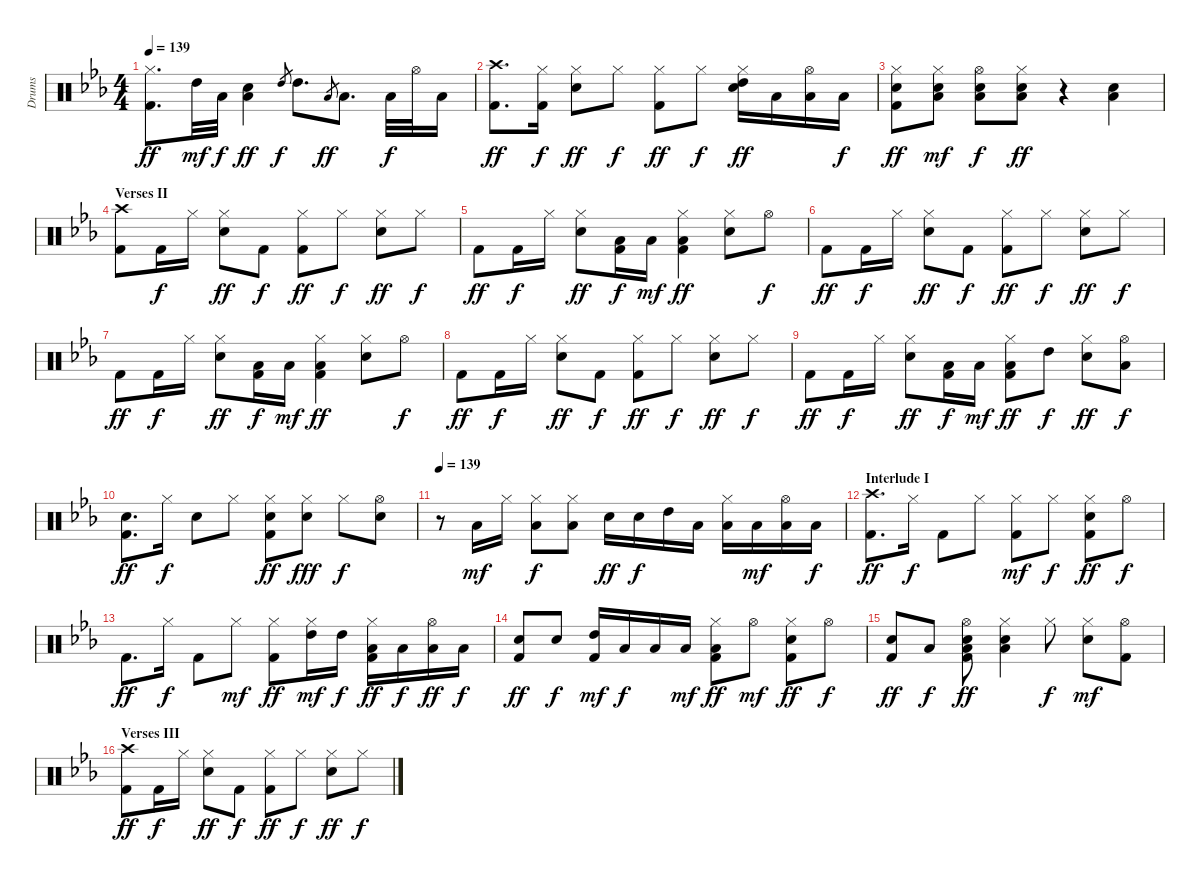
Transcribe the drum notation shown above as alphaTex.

\track ("Drums" "Drums") {instrument percussion}
\staff {score}
\articulation defaults
\ts (4 4)
\tempo 139
\clef neutral
\ks cminor
("Hi-Hat (closed)" "Kick (hit) 2").8{d dy ff} "High Tom (hit)".32{dy mf} "Low Tom (hit)".32{dy f} ("Low Floor Tom (hit)" "Snare (hit) 2").4{dy ff} "High Tom (hit)".8{gr dy f} "High Tom (hit)".8{d} "Low Tom (hit)".8{gr dy ff} "Low Tom (hit)".8{d} "Low Floor Tom (hit)".32{dy f} "Hi-Hat (open)".32 "Low Floor Tom (hit)".16 |
("Crash high (hit)" "Kick (hit) 2").8{d dy ff} ("Kick (hit) 2" "Hi-Hat (closed)").16{dy f} ("Hi-Hat (closed)" "Snare (hit) 2").8{dy ff} "Hi-Hat (closed)".8{dy f} ("Hi-Hat (closed)" "Kick (hit) 2").8{dy ff} "Hi-Hat (closed)".8{dy f} ("High Tom (hit)" "Hi-Hat (closed)" "Snare (hit) 2").16{dy ff} "Low Tom (hit)".16 ("Low Floor Tom (hit)" "Hi-Hat (open)").16 "Low Floor Tom (hit)".16{dy f} |
("Snare (hit) 2" "Hi-Hat (closed)" "Kick (hit) 2").8{dy ff} ("Low Floor Tom (hit)" "Snare (hit) 2" "Hi-Hat (closed)").8{dy mf} ("Low Floor Tom (hit)" "Hi-Hat (open)" "Snare (hit) 2").8{dy f} ("Low Floor Tom (hit)" "Snare (hit) 2" "Hi-Hat (closed)").8{dy ff} r.4 ("Low Floor Tom (hit)" "Snare (hit) 2").4 |
\section ("" "Verses II")
("Crash high (hit)" "Kick (hit) 2").8 "Kick (hit) 2".16{dy f} "Hi-Hat (closed)".16 ("Hi-Hat (closed)" "Snare (hit) 2").8{dy ff} "Kick (hit) 2".8{dy f} ("Hi-Hat (closed)" "Kick (hit) 2").8{dy ff} "Hi-Hat (closed)".8{dy f} ("Hi-Hat (closed)" "Snare (hit) 2").8{dy ff} "Hi-Hat (closed)".8{dy f} |
"Kick (hit) 2".8{dy ff} "Kick (hit) 2".16{dy f} "Hi-Hat (closed)".16 ("Hi-Hat (closed)" "Snare (hit) 2").8{dy ff} ("Low Floor Tom (hit)" "Kick (hit) 2").16{dy f} "Low Tom (hit)".16{dy mf} ("Low Floor Tom (hit)" "Hi-Hat (closed)" "Kick (hit) 2").4{dy ff} ("Hi-Hat (closed)" "Snare (hit) 2").8 "Hi-Hat (open)".8{dy f} |
"Kick (hit) 2".8{dy ff} "Kick (hit) 2".16{dy f} "Hi-Hat (closed)".16 ("Hi-Hat (closed)" "Snare (hit) 2").8{dy ff} "Kick (hit) 2".8{dy f} ("Hi-Hat (closed)" "Kick (hit) 2").8{dy ff} "Hi-Hat (closed)".8{dy f} ("Hi-Hat (closed)" "Snare (hit) 2").8{dy ff} "Hi-Hat (closed)".8{dy f} |
"Kick (hit) 2".8{dy ff} "Kick (hit) 2".16{dy f} "Hi-Hat (closed)".16 ("Hi-Hat (closed)" "Snare (hit) 2").8{dy ff} ("Low Floor Tom (hit)" "Kick (hit) 2").16{dy f} "Low Tom (hit)".16{dy mf} ("Low Floor Tom (hit)" "Hi-Hat (closed)" "Kick (hit) 2").4{dy ff} ("Hi-Hat (closed)" "Snare (hit) 2").8 "Hi-Hat (open)".8{dy f} |
"Kick (hit) 2".8{dy ff} "Kick (hit) 2".16{dy f} "Hi-Hat (closed)".16 ("Hi-Hat (closed)" "Snare (hit) 2").8{dy ff} "Kick (hit) 2".8{dy f} ("Hi-Hat (closed)" "Kick (hit) 2").8{dy ff} "Hi-Hat (closed)".8{dy f} ("Hi-Hat (closed)" "Snare (hit) 2").8{dy ff} "Hi-Hat (closed)".8{dy f} |
"Kick (hit) 2".8{dy ff} "Kick (hit) 2".16{dy f} "Hi-Hat (closed)".16 ("Hi-Hat (closed)" "Snare (hit) 2").8{dy ff} ("Low Floor Tom (hit)" "Kick (hit) 2").16{dy f} "Low Tom (hit)".16{dy mf} ("Low Floor Tom (hit)" "Hi-Hat (closed)" "Kick (hit) 2").8{dy ff} "High Tom (hit)".8{dy f} ("Hi-Hat (closed)" "Snare (hit) 2").8{dy ff} ("Low Floor Tom (hit)" "Hi-Hat (open)").8{dy f} |
("Snare (hit) 2" "Kick (hit) 2").8{d dy ff} "Hi-Hat (closed)".16{dy f} "Snare (hit) 2".8 "Hi-Hat (closed)".8 ("Snare (hit) 2" "Hi-Hat (closed)" "Kick (hit) 2").8{dy ff} ("Snare (hit) 2" "Hi-Hat (closed)").8{dy fff} "Hi-Hat (closed)".8{dy f} ("Snare (hit) 2" "Hi-Hat (open)").8 |
\tempo 139
r.8 "Low Floor Tom (hit)".16{dy mf} "Hi-Hat (closed)".16 ("Low Floor Tom (hit)" "Hi-Hat (closed)").8{dy f} ("Low Floor Tom (hit)" "Hi-Hat (closed)").8 "Snare (hit) 2".16{dy ff} "Snare (hit) 2".16{dy f} "High Tom (hit)".16 "Low Tom (hit)".16 ("Low Tom (hit)" "Hi-Hat (closed)").16 "Low Floor Tom (hit)".16{dy mf} ("Low Floor Tom (hit)" "Hi-Hat (open)").16 "Low Floor Tom (hit)".16{dy f} |
\section ("" "Interlude I")
("Crash high (hit)" "Kick (hit) 2").8{d dy ff} "Hi-Hat (closed)".16{dy f} "Kick (hit) 2".8 "Hi-Hat (closed)".8 ("Hi-Hat (closed)" "Kick (hit) 2").8{dy mf} "Hi-Hat (closed)".8{dy f} ("Snare (hit) 2" "Kick (hit) 2" "Hi-Hat (closed)").8{dy ff} "Hi-Hat (open)".8{dy f} |
"Kick (hit) 2".8{d dy ff} "Hi-Hat (closed)".16{dy f} "Kick (hit) 2".8 "Hi-Hat (closed)".8{dy mf} ("Hi-Hat (closed)" "Kick (hit) 2").8{dy ff} ("High Tom (hit)" "Hi-Hat (closed)").16{dy mf} "High Tom (hit)".16{dy f} ("Low Tom (hit)" "Kick (hit) 2" "Hi-Hat (closed)").16{dy ff} "Low Tom (hit)".16{dy f} ("Low Floor Tom (hit)" "Hi-Hat (open)").16{dy ff} "Low Floor Tom (hit)".16{dy f} |
("Kick (hit) 2" "Snare (hit) 2").8{dy ff} "Snare (hit) 2".8{dy f} ("Kick (hit) 2" "High Tom (hit)").16{dy mf} "Low Tom (hit)".16{dy f} "Low Floor Tom (hit)".16 "Low Floor Tom (hit)".16{dy mf} ("Hi-Hat (closed)" "Kick (hit) 2" "Low Floor Tom (hit)").8{dy ff} "Hi-Hat (open)".8{dy mf} ("Kick (hit) 2" "Hi-Hat (closed)" "Snare (hit) 2").8{dy ff} "Hi-Hat (open)".8{dy f} |
("Kick (hit) 2" "Snare (hit) 2").8{dy ff} "Low Floor Tom (hit)".8{dy f} ("Kick (hit) 2" "Low Floor Tom (hit)" "Hi-Hat (open)" "Snare (hit) 2").8{dy ff} ("Snare (hit) 2" "Low Floor Tom (hit)" "Hi-Hat (closed)").4 "Hi-Hat (closed)".8{dy f} ("Hand Clap (hit)" "Hi-Hat (closed)").8{dy mf} ("Kick (hit) 2" "Hi-Hat (open)").8 |
\section ("" "Verses III")
("Crash high (hit)" "Kick (hit) 2").8{dy ff} "Kick (hit) 2".16{dy f} "Hi-Hat (closed)".16 ("Hi-Hat (closed)" "Snare (hit) 2").8{dy ff} "Kick (hit) 2".8{dy f} ("Hi-Hat (closed)" "Kick (hit) 2").8{dy ff} "Hi-Hat (closed)".8{dy f} ("Hi-Hat (closed)" "Snare (hit) 2").8{dy ff} "Hi-Hat (closed)".8{dy f}
